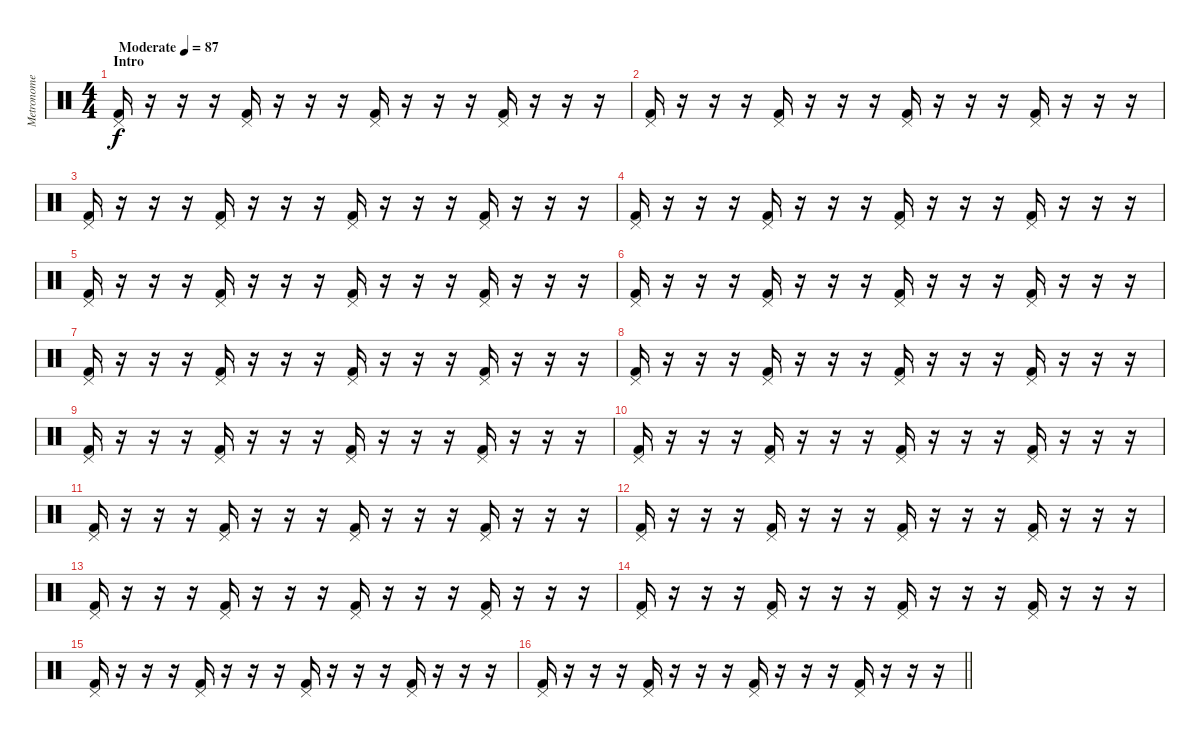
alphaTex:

\track ("Metronome" "Metronome") {mute instrument percussion}
\staff {score}
\articulation defaults
\ts (4 4)
\section ("" "Intro")
\tempo (87 "Moderate")
\clef neutral
\ks c
("Pedal Hi-Hat (hit)" "Kick (hit) 2").16{dy f} r.16 r.16 r.16 ("Pedal Hi-Hat (hit)" "Kick (hit) 2").16 r.16 r.16 r.16 ("Pedal Hi-Hat (hit)" "Kick (hit) 2").16 r.16 r.16 r.16 ("Pedal Hi-Hat (hit)" "Kick (hit) 2").16 r.16 r.16 r.16 |
("Pedal Hi-Hat (hit)" "Kick (hit) 2").16 r.16 r.16 r.16 ("Pedal Hi-Hat (hit)" "Kick (hit) 2").16 r.16 r.16 r.16 ("Pedal Hi-Hat (hit)" "Kick (hit) 2").16 r.16 r.16 r.16 ("Pedal Hi-Hat (hit)" "Kick (hit) 2").16 r.16 r.16 r.16 |
("Pedal Hi-Hat (hit)" "Kick (hit) 2").16 r.16 r.16 r.16 ("Pedal Hi-Hat (hit)" "Kick (hit) 2").16 r.16 r.16 r.16 ("Pedal Hi-Hat (hit)" "Kick (hit) 2").16 r.16 r.16 r.16 ("Pedal Hi-Hat (hit)" "Kick (hit) 2").16 r.16 r.16 r.16 |
("Pedal Hi-Hat (hit)" "Kick (hit) 2").16 r.16 r.16 r.16 ("Pedal Hi-Hat (hit)" "Kick (hit) 2").16 r.16 r.16 r.16 ("Pedal Hi-Hat (hit)" "Kick (hit) 2").16 r.16 r.16 r.16 ("Pedal Hi-Hat (hit)" "Kick (hit) 2").16 r.16 r.16 r.16 |
("Pedal Hi-Hat (hit)" "Kick (hit) 2").16 r.16 r.16 r.16 ("Pedal Hi-Hat (hit)" "Kick (hit) 2").16 r.16 r.16 r.16 ("Pedal Hi-Hat (hit)" "Kick (hit) 2").16 r.16 r.16 r.16 ("Pedal Hi-Hat (hit)" "Kick (hit) 2").16 r.16 r.16 r.16 |
("Pedal Hi-Hat (hit)" "Kick (hit) 2").16 r.16 r.16 r.16 ("Pedal Hi-Hat (hit)" "Kick (hit) 2").16 r.16 r.16 r.16 ("Pedal Hi-Hat (hit)" "Kick (hit) 2").16 r.16 r.16 r.16 ("Pedal Hi-Hat (hit)" "Kick (hit) 2").16 r.16 r.16 r.16 |
("Pedal Hi-Hat (hit)" "Kick (hit) 2").16 r.16 r.16 r.16 ("Pedal Hi-Hat (hit)" "Kick (hit) 2").16 r.16 r.16 r.16 ("Pedal Hi-Hat (hit)" "Kick (hit) 2").16 r.16 r.16 r.16 ("Pedal Hi-Hat (hit)" "Kick (hit) 2").16 r.16 r.16 r.16 |
("Pedal Hi-Hat (hit)" "Kick (hit) 2").16 r.16 r.16 r.16 ("Pedal Hi-Hat (hit)" "Kick (hit) 2").16 r.16 r.16 r.16 ("Pedal Hi-Hat (hit)" "Kick (hit) 2").16 r.16 r.16 r.16 ("Pedal Hi-Hat (hit)" "Kick (hit) 2").16 r.16 r.16 r.16 |
("Pedal Hi-Hat (hit)" "Kick (hit) 2").16 r.16 r.16 r.16 ("Pedal Hi-Hat (hit)" "Kick (hit) 2").16 r.16 r.16 r.16 ("Pedal Hi-Hat (hit)" "Kick (hit) 2").16 r.16 r.16 r.16 ("Pedal Hi-Hat (hit)" "Kick (hit) 2").16 r.16 r.16 r.16 |
("Pedal Hi-Hat (hit)" "Kick (hit) 2").16 r.16 r.16 r.16 ("Pedal Hi-Hat (hit)" "Kick (hit) 2").16 r.16 r.16 r.16 ("Pedal Hi-Hat (hit)" "Kick (hit) 2").16 r.16 r.16 r.16 ("Pedal Hi-Hat (hit)" "Kick (hit) 2").16 r.16 r.16 r.16 |
("Pedal Hi-Hat (hit)" "Kick (hit) 2").16 r.16 r.16 r.16 ("Pedal Hi-Hat (hit)" "Kick (hit) 2").16 r.16 r.16 r.16 ("Pedal Hi-Hat (hit)" "Kick (hit) 2").16 r.16 r.16 r.16 ("Pedal Hi-Hat (hit)" "Kick (hit) 2").16 r.16 r.16 r.16 |
("Pedal Hi-Hat (hit)" "Kick (hit) 2").16 r.16 r.16 r.16 ("Pedal Hi-Hat (hit)" "Kick (hit) 2").16 r.16 r.16 r.16 ("Pedal Hi-Hat (hit)" "Kick (hit) 2").16 r.16 r.16 r.16 ("Pedal Hi-Hat (hit)" "Kick (hit) 2").16 r.16 r.16 r.16 |
("Pedal Hi-Hat (hit)" "Kick (hit) 2").16 r.16 r.16 r.16 ("Pedal Hi-Hat (hit)" "Kick (hit) 2").16 r.16 r.16 r.16 ("Pedal Hi-Hat (hit)" "Kick (hit) 2").16 r.16 r.16 r.16 ("Pedal Hi-Hat (hit)" "Kick (hit) 2").16 r.16 r.16 r.16 |
("Pedal Hi-Hat (hit)" "Kick (hit) 2").16 r.16 r.16 r.16 ("Pedal Hi-Hat (hit)" "Kick (hit) 2").16 r.16 r.16 r.16 ("Pedal Hi-Hat (hit)" "Kick (hit) 2").16 r.16 r.16 r.16 ("Pedal Hi-Hat (hit)" "Kick (hit) 2").16 r.16 r.16 r.16 |
("Pedal Hi-Hat (hit)" "Kick (hit) 2").16 r.16 r.16 r.16 ("Pedal Hi-Hat (hit)" "Kick (hit) 2").16 r.16 r.16 r.16 ("Pedal Hi-Hat (hit)" "Kick (hit) 2").16 r.16 r.16 r.16 ("Pedal Hi-Hat (hit)" "Kick (hit) 2").16 r.16 r.16 r.16 |
\barLineRight lightlight
("Pedal Hi-Hat (hit)" "Kick (hit) 2").16 r.16 r.16 r.16 ("Pedal Hi-Hat (hit)" "Kick (hit) 2").16 r.16 r.16 r.16 ("Pedal Hi-Hat (hit)" "Kick (hit) 2").16 r.16 r.16 r.16 ("Pedal Hi-Hat (hit)" "Kick (hit) 2").16 r.16 r.16 r.16
